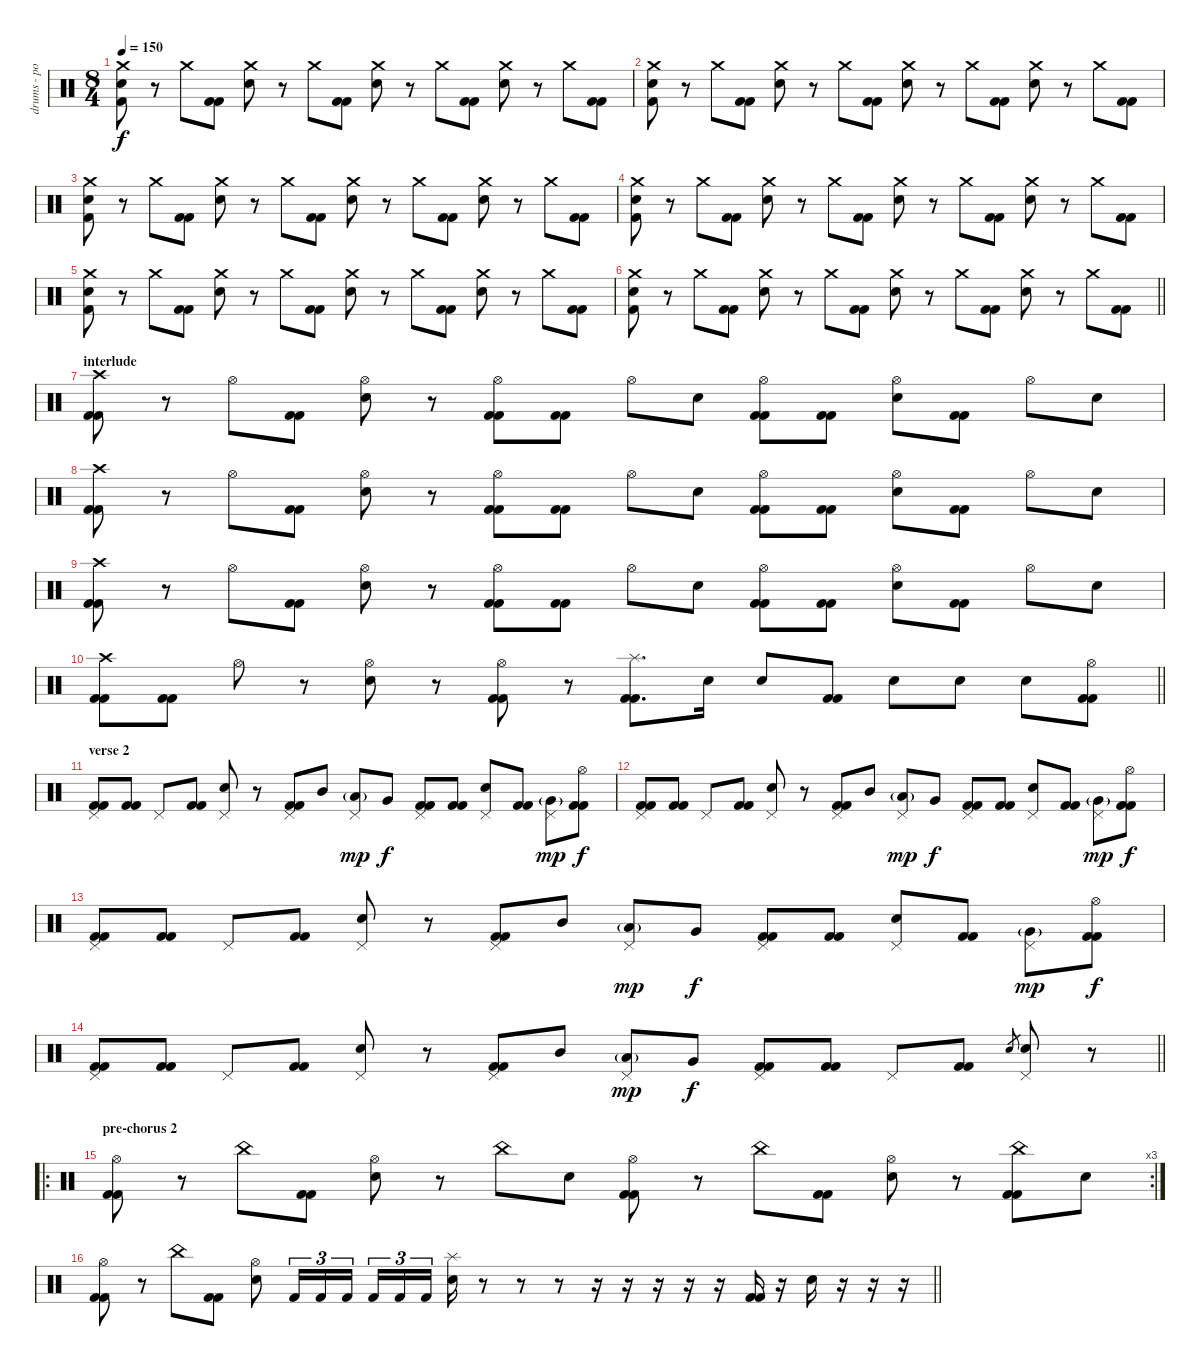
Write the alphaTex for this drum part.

\track ("drums - portnoy" "drums - po") {instrument percussion}
\staff {score}
\articulation defaults
\ts (8 4)
\tempo 150
\clef neutral
\ks c
("Crash medium (hit)" "Electric Snare (hit)" "Kick (hit) 2").8{dy f} r.8 "Crash medium (hit)".8 ("Kick (hit) 2" "Kick (hit) 2").8 ("Crash medium (hit)" "Electric Snare (hit)").8 r.8 "Crash medium (hit)".8 ("Kick (hit) 2" "Kick (hit) 2").8 ("Crash medium (hit)" "Electric Snare (hit)").8 r.8 "Crash medium (hit)".8 ("Kick (hit) 2" "Kick (hit) 2").8 ("Crash medium (hit)" "Electric Snare (hit)").8 r.8 "Crash medium (hit)".8 ("Kick (hit) 2" "Kick (hit) 2").8 |
("Crash medium (hit)" "Electric Snare (hit)" "Kick (hit) 2").8 r.8 "Crash medium (hit)".8 ("Kick (hit) 2" "Kick (hit) 2").8 ("Crash medium (hit)" "Electric Snare (hit)").8 r.8 "Crash medium (hit)".8 ("Kick (hit) 2" "Kick (hit) 2").8 ("Crash medium (hit)" "Electric Snare (hit)").8 r.8 "Crash medium (hit)".8 ("Kick (hit) 2" "Kick (hit) 2").8 ("Crash medium (hit)" "Electric Snare (hit)").8 r.8 "Crash medium (hit)".8 ("Kick (hit) 2" "Kick (hit) 2").8 |
("Crash medium (hit)" "Electric Snare (hit)" "Kick (hit) 2").8 r.8 "Crash medium (hit)".8 ("Kick (hit) 2" "Kick (hit) 2").8 ("Crash medium (hit)" "Electric Snare (hit)").8 r.8 "Crash medium (hit)".8 ("Kick (hit) 2" "Kick (hit) 2").8 ("Crash medium (hit)" "Electric Snare (hit)").8 r.8 "Crash medium (hit)".8 ("Kick (hit) 2" "Kick (hit) 2").8 ("Crash medium (hit)" "Electric Snare (hit)").8 r.8 "Crash medium (hit)".8 ("Kick (hit) 2" "Kick (hit) 2").8 |
("Crash medium (hit)" "Electric Snare (hit)" "Kick (hit) 2").8 r.8 "Crash medium (hit)".8 ("Kick (hit) 2" "Kick (hit) 2").8 ("Crash medium (hit)" "Electric Snare (hit)").8 r.8 "Crash medium (hit)".8 ("Kick (hit) 2" "Kick (hit) 2").8 ("Crash medium (hit)" "Electric Snare (hit)").8 r.8 "Crash medium (hit)".8 ("Kick (hit) 2" "Kick (hit) 2").8 ("Crash medium (hit)" "Electric Snare (hit)").8 r.8 "Crash medium (hit)".8 ("Kick (hit) 2" "Kick (hit) 2").8 |
("Crash medium (hit)" "Electric Snare (hit)" "Kick (hit) 2").8 r.8 "Crash medium (hit)".8 ("Kick (hit) 2" "Kick (hit) 2").8 ("Crash medium (hit)" "Electric Snare (hit)").8 r.8 "Crash medium (hit)".8 ("Kick (hit) 2" "Kick (hit) 2").8 ("Crash medium (hit)" "Electric Snare (hit)").8 r.8 "Crash medium (hit)".8 ("Kick (hit) 2" "Kick (hit) 2").8 ("Crash medium (hit)" "Electric Snare (hit)").8 r.8 "Crash medium (hit)".8 ("Kick (hit) 2" "Kick (hit) 2").8 |
\barLineRight lightlight
("Crash medium (hit)" "Electric Snare (hit)" "Kick (hit) 2").8 r.8 "Crash medium (hit)".8 ("Kick (hit) 2" "Kick (hit) 2").8 ("Crash medium (hit)" "Electric Snare (hit)").8 r.8 "Crash medium (hit)".8 ("Kick (hit) 2" "Kick (hit) 2").8 ("Crash medium (hit)" "Electric Snare (hit)").8 r.8 "Crash medium (hit)".8 ("Kick (hit) 2" "Kick (hit) 2").8 ("Crash medium (hit)" "Electric Snare (hit)").8 r.8 "Crash medium (hit)".8 ("Kick (hit) 2" "Kick (hit) 2").8 |
\section ("" "interlude")
("Crash high (hit)" "Kick (hit) 2" "Kick (hit) 2").8 r.8 "Hi-Hat (open)".8 ("Kick (hit) 2" "Kick (hit) 2").8 ("Hi-Hat (open)" "Electric Snare (hit)").8 r.8 ("Hi-Hat (open)" "Kick (hit) 2" "Kick (hit) 2").8 ("Kick (hit) 2" "Kick (hit) 2").8 "Hi-Hat (open)".8 "Electric Snare (hit)".8 ("Hi-Hat (open)" "Kick (hit) 2" "Kick (hit) 2").8 ("Kick (hit) 2" "Kick (hit) 2").8 ("Hi-Hat (open)" "Electric Snare (hit)").8 ("Kick (hit) 2" "Kick (hit) 2").8 "Hi-Hat (open)".8 "Electric Snare (hit)".8 |
("Crash high (hit)" "Kick (hit) 2" "Kick (hit) 2").8 r.8 "Hi-Hat (open)".8 ("Kick (hit) 2" "Kick (hit) 2").8 ("Hi-Hat (open)" "Electric Snare (hit)").8 r.8 ("Hi-Hat (open)" "Kick (hit) 2" "Kick (hit) 2").8 ("Kick (hit) 2" "Kick (hit) 2").8 "Hi-Hat (open)".8 "Electric Snare (hit)".8 ("Hi-Hat (open)" "Kick (hit) 2" "Kick (hit) 2").8 ("Kick (hit) 2" "Kick (hit) 2").8 ("Hi-Hat (open)" "Electric Snare (hit)").8 ("Kick (hit) 2" "Kick (hit) 2").8 "Hi-Hat (open)".8 "Electric Snare (hit)".8 |
("Crash high (hit)" "Kick (hit) 2" "Kick (hit) 2").8 r.8 "Hi-Hat (open)".8 ("Kick (hit) 2" "Kick (hit) 2").8 ("Hi-Hat (open)" "Electric Snare (hit)").8 r.8 ("Hi-Hat (open)" "Kick (hit) 2" "Kick (hit) 2").8 ("Kick (hit) 2" "Kick (hit) 2").8 "Hi-Hat (open)".8 "Electric Snare (hit)".8 ("Hi-Hat (open)" "Kick (hit) 2" "Kick (hit) 2").8 ("Kick (hit) 2" "Kick (hit) 2").8 ("Hi-Hat (open)" "Electric Snare (hit)").8 ("Kick (hit) 2" "Kick (hit) 2").8 "Hi-Hat (open)".8 "Electric Snare (hit)".8 |
\barLineRight lightlight
("Crash high (hit)" "Kick (hit) 2" "Kick (hit) 2").8 ("Kick (hit) 2" "Kick (hit) 2").8 "Hi-Hat (open)".8 r.8 ("Hi-Hat (open)" "Electric Snare (hit)").8 r.8 ("Hi-Hat (open)" "Kick (hit) 2" "Kick (hit) 2").8 r.8 ("Splash (hit)" "Kick (hit) 2" "Kick (hit) 2").8{d} "Electric Snare (hit)".16 "Electric Snare (hit)".8 ("Kick (hit) 2" "Kick (hit) 2").8 "Electric Snare (hit)".8 "Electric Snare (hit)".8 "Electric Snare (hit)".8 ("Hi-Hat (open)" "Kick (hit) 2" "Kick (hit) 2").8 |
\section ("" "verse 2")
("Pedal Hi-Hat (hit)" "Kick (hit) 2" "Kick (hit) 2").8 ("Kick (hit) 2" "Kick (hit) 2").8 "Pedal Hi-Hat (hit)".8 ("Kick (hit) 2" "Kick (hit) 2").8 ("Pedal Hi-Hat (hit)" "Electric Snare (hit)").8 r.8 ("Pedal Hi-Hat (hit)" "Kick (hit) 2" "Kick (hit) 2").8 "Mid Tom (hit)".8 ("Pedal Hi-Hat (hit)" "Low Tom (hit)"{g}).8{dy mp} "Very Low Tom (hit)".8{dy f} ("Pedal Hi-Hat (hit)" "Kick (hit) 2" "Kick (hit) 2").8 ("Kick (hit) 2" "Kick (hit) 2").8 ("Pedal Hi-Hat (hit)" "Electric Snare (hit)").8 ("Kick (hit) 2" "Kick (hit) 2").8 ("Pedal Hi-Hat (hit)" "Very Low Tom (hit)"{g}).8{dy mp} ("Hi-Hat (open)" "Kick (hit) 2" "Kick (hit) 2").8{dy f} |
("Pedal Hi-Hat (hit)" "Kick (hit) 2" "Kick (hit) 2").8 ("Kick (hit) 2" "Kick (hit) 2").8 "Pedal Hi-Hat (hit)".8 ("Kick (hit) 2" "Kick (hit) 2").8 ("Pedal Hi-Hat (hit)" "Electric Snare (hit)").8 r.8 ("Pedal Hi-Hat (hit)" "Kick (hit) 2" "Kick (hit) 2").8 "Mid Tom (hit)".8 ("Pedal Hi-Hat (hit)" "Low Tom (hit)"{g}).8{dy mp} "Very Low Tom (hit)".8{dy f} ("Pedal Hi-Hat (hit)" "Kick (hit) 2" "Kick (hit) 2").8 ("Kick (hit) 2" "Kick (hit) 2").8 ("Pedal Hi-Hat (hit)" "Electric Snare (hit)").8 ("Kick (hit) 2" "Kick (hit) 2").8 ("Pedal Hi-Hat (hit)" "Very Low Tom (hit)"{g}).8{dy mp} ("Hi-Hat (open)" "Kick (hit) 2" "Kick (hit) 2").8{dy f} |
("Pedal Hi-Hat (hit)" "Kick (hit) 2" "Kick (hit) 2").8 ("Kick (hit) 2" "Kick (hit) 2").8 "Pedal Hi-Hat (hit)".8 ("Kick (hit) 2" "Kick (hit) 2").8 ("Pedal Hi-Hat (hit)" "Electric Snare (hit)").8 r.8 ("Pedal Hi-Hat (hit)" "Kick (hit) 2" "Kick (hit) 2").8 "Mid Tom (hit)".8 ("Pedal Hi-Hat (hit)" "Low Tom (hit)"{g}).8{dy mp} "Very Low Tom (hit)".8{dy f} ("Pedal Hi-Hat (hit)" "Kick (hit) 2" "Kick (hit) 2").8 ("Kick (hit) 2" "Kick (hit) 2").8 ("Pedal Hi-Hat (hit)" "Electric Snare (hit)").8 ("Kick (hit) 2" "Kick (hit) 2").8 ("Pedal Hi-Hat (hit)" "Very Low Tom (hit)"{g}).8{dy mp} ("Hi-Hat (open)" "Kick (hit) 2" "Kick (hit) 2").8{dy f} |
\barLineRight lightlight
("Pedal Hi-Hat (hit)" "Kick (hit) 2" "Kick (hit) 2").8 ("Kick (hit) 2" "Kick (hit) 2").8 "Pedal Hi-Hat (hit)".8 ("Kick (hit) 2" "Kick (hit) 2").8 ("Pedal Hi-Hat (hit)" "Electric Snare (hit)").8 r.8 ("Pedal Hi-Hat (hit)" "Kick (hit) 2" "Kick (hit) 2").8 "Mid Tom (hit)".8 ("Pedal Hi-Hat (hit)" "Low Tom (hit)"{g}).8{dy mp} "Very Low Tom (hit)".8{dy f} ("Pedal Hi-Hat (hit)" "Kick (hit) 2" "Kick (hit) 2").8 ("Kick (hit) 2" "Kick (hit) 2").8 "Pedal Hi-Hat (hit)".8 ("Kick (hit) 2" "Kick (hit) 2").8 "Electric Snare (hit)".8{gr} ("Pedal Hi-Hat (hit)" "Electric Snare (hit)").8 r.8 |
\ro
\rc 3
\section ("" "pre-chorus 2")
("Hi-Hat (open)" "Kick (hit) 2" "Kick (hit) 2").8 r.8 "China (hit)".8 ("Kick (hit) 2" "Kick (hit) 2").8 ("Hi-Hat (open)" "Electric Snare (hit)").8 r.8 "China (hit)".8 "Electric Snare (hit)".8 ("Hi-Hat (open)" "Kick (hit) 2" "Kick (hit) 2").8 r.8 "China (hit)".8 ("Kick (hit) 2" "Kick (hit) 2").8 ("Hi-Hat (open)" "Electric Snare (hit)").8 r.8 ("China (hit)" "Kick (hit) 2" "Kick (hit) 2").8 "Electric Snare (hit)".8 |
\barLineRight lightlight
("Hi-Hat (open)" "Kick (hit) 2" "Kick (hit) 2").8 r.8 "China (hit)".8 ("Kick (hit) 2" "Kick (hit) 2").8 ("Hi-Hat (open)" "Electric Snare (hit)").8 "Kick (hit) 2".16{tu (3 2)} "Kick (hit) 2".16{tu (3 2)} "Kick (hit) 2".16{tu (3 2)} "Kick (hit) 2".16{tu (3 2)} "Kick (hit) 2".16{tu (3 2)} "Kick (hit) 2".16{tu (3 2) beam splitsecondary} ("Splash (hit)" "Electric Snare (hit)").16 r.8 r.8 r.8 r.16 r.16 r.16 r.16 r.16 ("Kick (hit) 2" "Kick (hit) 2").16 r.16 "Electric Snare (hit)".16 r.16 r.16 r.16
